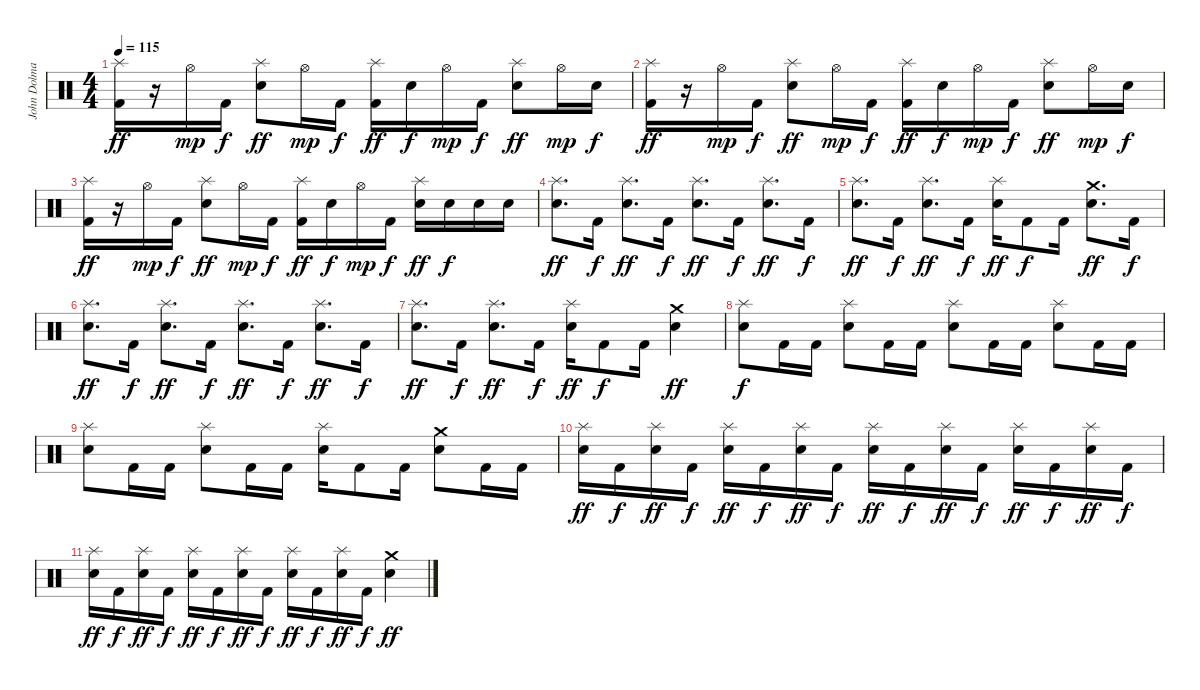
\track ("John Dolmayan" "John Dolma") {instrument percussion}
\staff {score}
\articulation defaults
\ts (4 4)
\tempo 115
\clef neutral
\ks c
("Splash (hit)" "Kick (hit) 2").16{dy ff} r.16 "Hi-Hat (open)".16{dy mp} "Kick (hit) 2".16{dy f} ("Splash (hit)" "Electric Snare (hit)").8{dy ff} "Hi-Hat (open)".16{dy mp} "Kick (hit) 2".16{dy f} ("Splash (hit)" "Kick (hit) 2").16{dy ff} "Electric Snare (hit)".16{dy f} "Hi-Hat (open)".16{dy mp} "Kick (hit) 2".16{dy f} ("Splash (hit)" "Electric Snare (hit)").8{dy ff} "Hi-Hat (open)".16{dy mp} "Electric Snare (hit)".16{dy f} |
("Splash (hit)" "Kick (hit) 2").16{dy ff} r.16 "Hi-Hat (open)".16{dy mp} "Kick (hit) 2".16{dy f} ("Splash (hit)" "Electric Snare (hit)").8{dy ff} "Hi-Hat (open)".16{dy mp} "Kick (hit) 2".16{dy f} ("Splash (hit)" "Kick (hit) 2").16{dy ff} "Electric Snare (hit)".16{dy f} "Hi-Hat (open)".16{dy mp} "Kick (hit) 2".16{dy f} ("Splash (hit)" "Electric Snare (hit)").8{dy ff} "Hi-Hat (open)".16{dy mp} "Electric Snare (hit)".16{dy f} |
("Splash (hit)" "Kick (hit) 2").16{dy ff} r.16 "Hi-Hat (open)".16{dy mp} "Kick (hit) 2".16{dy f} ("Splash (hit)" "Electric Snare (hit)").8{dy ff} "Hi-Hat (open)".16{dy mp} "Kick (hit) 2".16{dy f} ("Splash (hit)" "Kick (hit) 2").16{dy ff} "Electric Snare (hit)".16{dy f} "Hi-Hat (open)".16{dy mp} "Kick (hit) 2".16{dy f} ("Splash (hit)" "Electric Snare (hit)").16{dy ff} "Electric Snare (hit)".16{dy f} "Electric Snare (hit)".16 "Electric Snare (hit)".16 |
("Splash (hit)" "Electric Snare (hit)").8{d dy ff} "Kick (hit) 2".16{dy f} ("Splash (hit)" "Electric Snare (hit)").8{d dy ff} "Kick (hit) 2".16{dy f} ("Splash (hit)" "Electric Snare (hit)").8{d dy ff} "Kick (hit) 2".16{dy f} ("Splash (hit)" "Electric Snare (hit)").8{d dy ff} "Kick (hit) 2".16{dy f} |
("Splash (hit)" "Electric Snare (hit)").8{d dy ff} "Kick (hit) 2".16{dy f} ("Splash (hit)" "Electric Snare (hit)").8{d dy ff} "Kick (hit) 2".16{dy f} ("Splash (hit)" "Electric Snare (hit)").16{dy ff} "Kick (hit) 2".8{dy f} "Kick (hit) 2".16 ("Crash medium (hit)" "Electric Snare (hit)").8{d dy ff} "Kick (hit) 2".16{dy f} |
("Splash (hit)" "Electric Snare (hit)").8{d dy ff} "Kick (hit) 2".16{dy f} ("Splash (hit)" "Electric Snare (hit)").8{d dy ff} "Kick (hit) 2".16{dy f} ("Splash (hit)" "Electric Snare (hit)").8{d dy ff} "Kick (hit) 2".16{dy f} ("Splash (hit)" "Electric Snare (hit)").8{d dy ff} "Kick (hit) 2".16{dy f} |
("Splash (hit)" "Electric Snare (hit)").8{d dy ff} "Kick (hit) 2".16{dy f} ("Splash (hit)" "Electric Snare (hit)").8{d dy ff} "Kick (hit) 2".16{dy f} ("Splash (hit)" "Electric Snare (hit)").16{dy ff} "Kick (hit) 2".8{dy f} "Kick (hit) 2".16 ("Crash medium (hit)" "Electric Snare (hit)").4{dy ff} |
("Splash (hit)" "Electric Snare (hit)").8{dy f} "Kick (hit) 2".16 "Kick (hit) 2".16 ("Splash (hit)" "Electric Snare (hit)").8 "Kick (hit) 2".16 "Kick (hit) 2".16 ("Splash (hit)" "Electric Snare (hit)").8 "Kick (hit) 2".16 "Kick (hit) 2".16 ("Splash (hit)" "Electric Snare (hit)").8 "Kick (hit) 2".16 "Kick (hit) 2".16 |
("Splash (hit)" "Electric Snare (hit)").8 "Kick (hit) 2".16 "Kick (hit) 2".16 ("Splash (hit)" "Electric Snare (hit)").8 "Kick (hit) 2".16 "Kick (hit) 2".16 ("Splash (hit)" "Electric Snare (hit)").16 "Kick (hit) 2".8 "Kick (hit) 2".16 ("Crash medium (hit)" "Electric Snare (hit)").8 "Kick (hit) 2".16 "Kick (hit) 2".16 |
("Splash (hit)" "Electric Snare (hit)").16{dy ff} "Kick (hit) 2".16{dy f} ("Splash (hit)" "Electric Snare (hit)").16{dy ff} "Kick (hit) 2".16{dy f} ("Splash (hit)" "Electric Snare (hit)").16{dy ff} "Kick (hit) 2".16{dy f} ("Splash (hit)" "Electric Snare (hit)").16{dy ff} "Kick (hit) 2".16{dy f} ("Splash (hit)" "Electric Snare (hit)").16{dy ff} "Kick (hit) 2".16{dy f} ("Splash (hit)" "Electric Snare (hit)").16{dy ff} "Kick (hit) 2".16{dy f} ("Splash (hit)" "Electric Snare (hit)").16{dy ff} "Kick (hit) 2".16{dy f} ("Splash (hit)" "Electric Snare (hit)").16{dy ff} "Kick (hit) 2".16{dy f} |
("Splash (hit)" "Electric Snare (hit)").16{dy ff} "Kick (hit) 2".16{dy f} ("Splash (hit)" "Electric Snare (hit)").16{dy ff} "Kick (hit) 2".16{dy f} ("Splash (hit)" "Electric Snare (hit)").16{dy ff} "Kick (hit) 2".16{dy f} ("Splash (hit)" "Electric Snare (hit)").16{dy ff} "Kick (hit) 2".16{dy f} ("Splash (hit)" "Electric Snare (hit)").16{dy ff} "Kick (hit) 2".16{dy f} ("Splash (hit)" "Electric Snare (hit)").16{dy ff} "Kick (hit) 2".16{dy f} ("Crash medium (hit)" "Electric Snare (hit)").4{dy ff}
